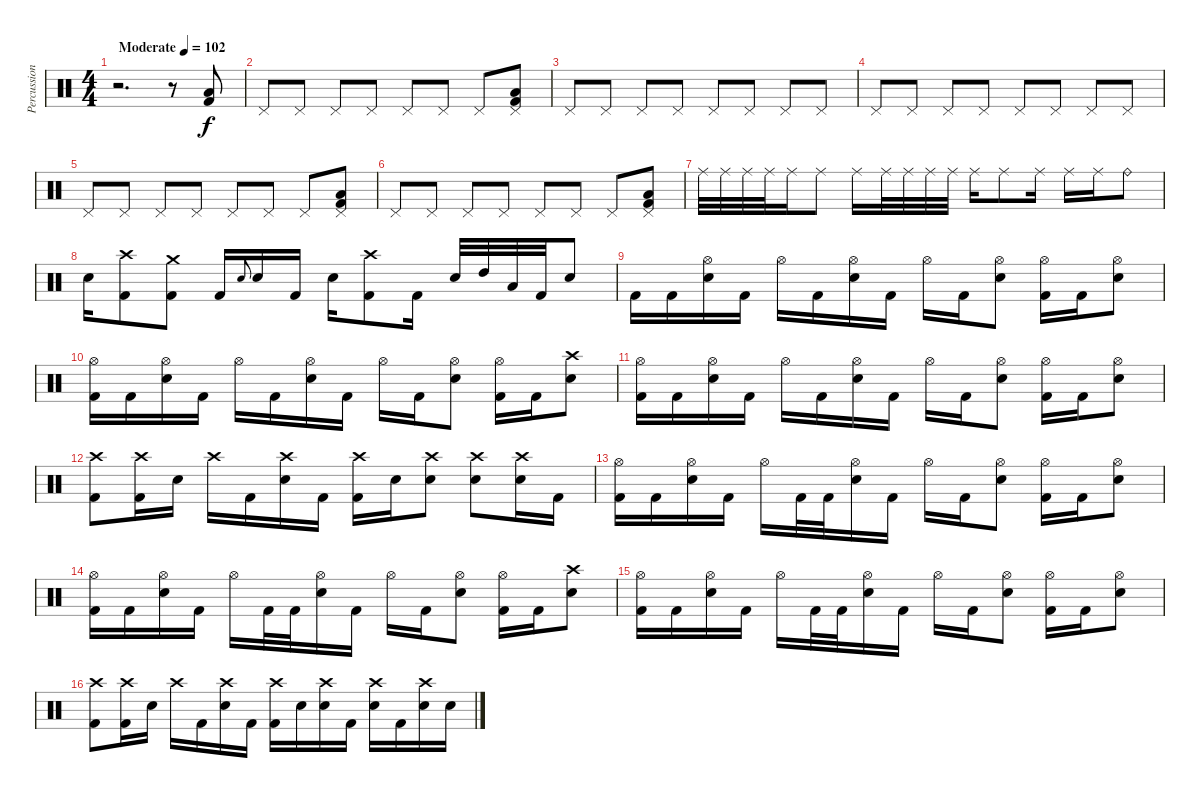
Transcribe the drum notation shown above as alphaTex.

\track ("Percussion" "Percussion") {instrument percussion}
\staff {score}
\articulation defaults
\ts (4 4)
\tempo (102 "Moderate")
\clef neutral
\ks c
r.2{d dy f} r.8 ("Low Tom (hit)" "Kick (hit) 2").8 |
"Pedal Hi-Hat (hit)".8 "Pedal Hi-Hat (hit)".8 "Pedal Hi-Hat (hit)".8 "Pedal Hi-Hat (hit)".8 "Pedal Hi-Hat (hit)".8 "Pedal Hi-Hat (hit)".8 "Pedal Hi-Hat (hit)".8 ("Pedal Hi-Hat (hit)" "Low Tom (hit)" "Kick (hit) 2").8 |
"Pedal Hi-Hat (hit)".8 "Pedal Hi-Hat (hit)".8 "Pedal Hi-Hat (hit)".8 "Pedal Hi-Hat (hit)".8 "Pedal Hi-Hat (hit)".8 "Pedal Hi-Hat (hit)".8 "Pedal Hi-Hat (hit)".8 "Pedal Hi-Hat (hit)".8 |
"Pedal Hi-Hat (hit)".8 "Pedal Hi-Hat (hit)".8 "Pedal Hi-Hat (hit)".8 "Pedal Hi-Hat (hit)".8 "Pedal Hi-Hat (hit)".8 "Pedal Hi-Hat (hit)".8 "Pedal Hi-Hat (hit)".8 "Pedal Hi-Hat (hit)".8 |
"Pedal Hi-Hat (hit)".8 "Pedal Hi-Hat (hit)".8 "Pedal Hi-Hat (hit)".8 "Pedal Hi-Hat (hit)".8 "Pedal Hi-Hat (hit)".8 "Pedal Hi-Hat (hit)".8 "Pedal Hi-Hat (hit)".8 ("Pedal Hi-Hat (hit)" "Low Tom (hit)" "Kick (hit) 2").8 |
"Pedal Hi-Hat (hit)".8 "Pedal Hi-Hat (hit)".8 "Pedal Hi-Hat (hit)".8 "Pedal Hi-Hat (hit)".8 "Pedal Hi-Hat (hit)".8 "Pedal Hi-Hat (hit)".8 "Pedal Hi-Hat (hit)".8 ("Pedal Hi-Hat (hit)" "Low Tom (hit)" "Kick (hit) 2").8 |
"Ride (middle)".32 "Ride (middle)".32 "Ride (middle)".32 "Ride (middle)".32 "Ride (middle)".16 "Ride (middle)".8 "Ride (middle)".16 "Ride (middle)".32 "Ride (middle)".32 "Ride (middle)".32 "Ride (middle)".32 "Ride (middle)".16 "Ride (middle)".8 "Ride (middle)".16 "Ride (middle)".16 "Ride (middle)".16 "Ride (bell)".8 |
"Snare (hit) 2".16 ("Crash high (hit)" "Kick (hit) 2").8 ("Crash medium (hit)" "Kick (hit) 2").8 "Kick (hit) 2".16 "Snare (hit) 2".8{gr onbeat} "Snare (hit) 2".16 "Kick (hit) 2".16 "Snare (hit) 2".16 ("Crash high (hit)" "Kick (hit) 2").8 "Kick (hit) 2".16 "Snare (hit) 2".32 "High Tom (hit)".32 "Low Tom (hit)".32 "Kick (hit) 2".32 "Snare (hit) 2".8 |
"Kick (hit) 2".16 "Kick (hit) 2".16 ("Hi-Hat (open)" "Snare (hit) 2").16 "Kick (hit) 2".16 "Hi-Hat (open)".16 "Kick (hit) 2".16 ("Hi-Hat (open)" "Snare (hit) 2").16 "Kick (hit) 2".16 "Hi-Hat (open)".16 "Kick (hit) 2".16 ("Hi-Hat (open)" "Snare (hit) 2").8 ("Hi-Hat (open)" "Kick (hit) 2").16 "Kick (hit) 2".16 ("Hi-Hat (open)" "Snare (hit) 2").8 |
("Hi-Hat (open)" "Kick (hit) 2").16 "Kick (hit) 2".16 ("Hi-Hat (open)" "Snare (hit) 2").16 "Kick (hit) 2".16 "Hi-Hat (open)".16 "Kick (hit) 2".16 ("Hi-Hat (open)" "Snare (hit) 2").16 "Kick (hit) 2".16 "Hi-Hat (open)".16 "Kick (hit) 2".16 ("Hi-Hat (open)" "Snare (hit) 2").8 ("Hi-Hat (open)" "Kick (hit) 2").16 "Kick (hit) 2".16 ("Crash high (hit)" "Snare (hit) 2").8 |
("Hi-Hat (open)" "Kick (hit) 2").16 "Kick (hit) 2".16 ("Hi-Hat (open)" "Snare (hit) 2").16 "Kick (hit) 2".16 "Hi-Hat (open)".16 "Kick (hit) 2".16 ("Hi-Hat (open)" "Snare (hit) 2").16 "Kick (hit) 2".16 "Hi-Hat (open)".16 "Kick (hit) 2".16 ("Hi-Hat (open)" "Snare (hit) 2").8 ("Hi-Hat (open)" "Kick (hit) 2").16 "Kick (hit) 2".16 ("Hi-Hat (open)" "Snare (hit) 2").8 |
("Crash high (hit)" "Kick (hit) 2").8 ("Crash high (hit)" "Kick (hit) 2").16 "Snare (hit) 2".16 "Crash high (hit)".16 "Kick (hit) 2".16 ("Crash high (hit)" "Snare (hit) 2").16 "Kick (hit) 2".16 ("Crash high (hit)" "Kick (hit) 2").16 "Snare (hit) 2".16 ("Crash high (hit)" "Snare (hit) 2").8 ("Crash high (hit)" "Snare (hit) 2").8 ("Crash high (hit)" "Snare (hit) 2").16 "Kick (hit) 2".16 |
("Hi-Hat (open)" "Kick (hit) 2").16 "Kick (hit) 2".16 ("Hi-Hat (open)" "Snare (hit) 2").16 "Kick (hit) 2".16 "Hi-Hat (open)".16 "Kick (hit) 2".32 "Kick (hit) 2".32 ("Hi-Hat (open)" "Snare (hit) 2").16 "Kick (hit) 2".16 "Hi-Hat (open)".16 "Kick (hit) 2".16 ("Hi-Hat (open)" "Snare (hit) 2").8 ("Hi-Hat (open)" "Kick (hit) 2").16 "Kick (hit) 2".16 ("Hi-Hat (open)" "Snare (hit) 2").8 |
("Hi-Hat (open)" "Kick (hit) 2").16 "Kick (hit) 2".16 ("Hi-Hat (open)" "Snare (hit) 2").16 "Kick (hit) 2".16 "Hi-Hat (open)".16 "Kick (hit) 2".32 "Kick (hit) 2".32 ("Hi-Hat (open)" "Snare (hit) 2").16 "Kick (hit) 2".16 "Hi-Hat (open)".16 "Kick (hit) 2".16 ("Hi-Hat (open)" "Snare (hit) 2").8 ("Hi-Hat (open)" "Kick (hit) 2").16 "Kick (hit) 2".16 ("Crash high (hit)" "Snare (hit) 2").8 |
("Hi-Hat (open)" "Kick (hit) 2").16 "Kick (hit) 2".16 ("Hi-Hat (open)" "Snare (hit) 2").16 "Kick (hit) 2".16 "Hi-Hat (open)".16 "Kick (hit) 2".32 "Kick (hit) 2".32 ("Hi-Hat (open)" "Snare (hit) 2").16 "Kick (hit) 2".16 "Hi-Hat (open)".16 "Kick (hit) 2".16 ("Hi-Hat (open)" "Snare (hit) 2").8 ("Hi-Hat (open)" "Kick (hit) 2").16 "Kick (hit) 2".16 ("Hi-Hat (open)" "Snare (hit) 2").8 |
("Crash high (hit)" "Kick (hit) 2").8 ("Crash high (hit)" "Kick (hit) 2").16 "Snare (hit) 2".16 "Crash high (hit)".16 "Kick (hit) 2".16 ("Crash high (hit)" "Snare (hit) 2").16 "Kick (hit) 2".16 ("Crash high (hit)" "Kick (hit) 2").16 "Snare (hit) 2".16 ("Crash high (hit)" "Snare (hit) 2").16 "Kick (hit) 2".16 ("Crash high (hit)" "Snare (hit) 2").16 "Kick (hit) 2".16 ("Crash high (hit)" "Snare (hit) 2").16 "Snare (hit) 2".16
